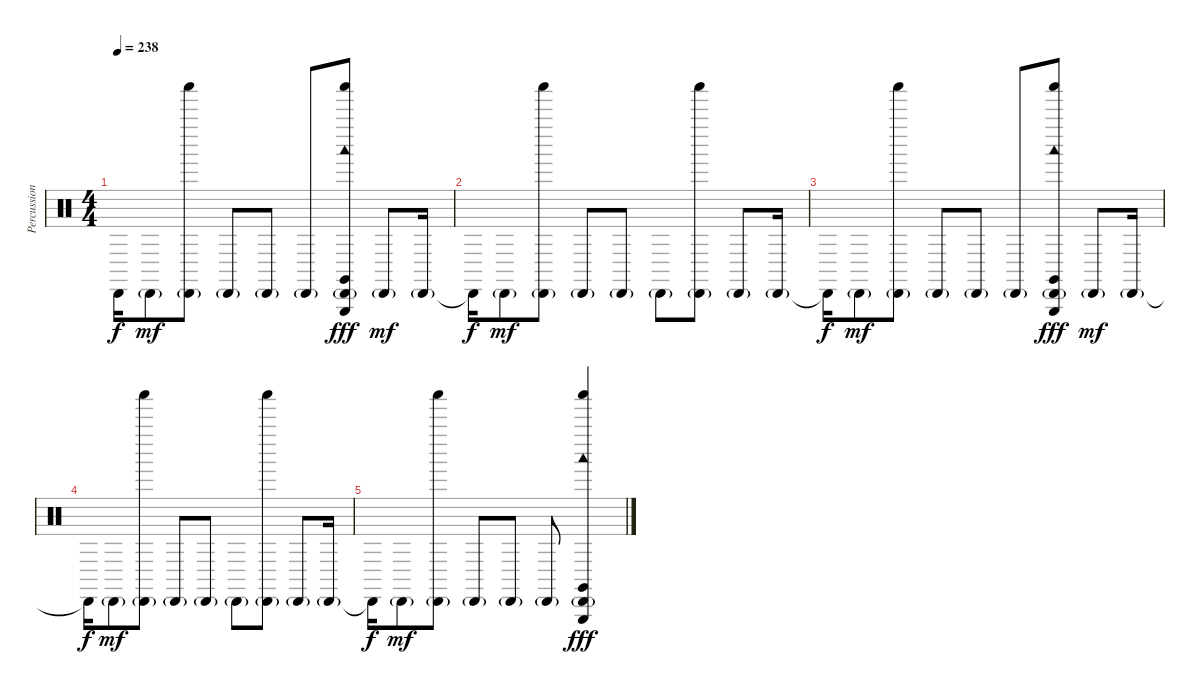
\track ("Percussion" "Percussion") {instrument percussion}
\staff {score}
\articulation defaults
\ts (4 4)
\tempo 238
\clef neutral
\ks c "Cabasa (hit)"{t}.16{dy f} "Cabasa (hit)"{g}.8{dy mf}
("Shaker (hit)" "Cabasa (hit)"{g}).8 "Cabasa (hit)"{g}.8 "Cabasa (hit)"{g}.8 "Cabasa (hit)"{g}.8 ("Shaker (hit)" "Cabasa (hit)"{g} "Claves (hit)" "Woodblock low (hit)" "Triangle (hit)").8{dy fff} "Cabasa (hit)"{g}.8{dy mf} "Cabasa (hit)"{g}.16 |
"Cabasa (hit)"{t}.16{dy f} "Cabasa (hit)"{g}.8{dy mf} ("Shaker (hit)" "Cabasa (hit)"{g}).8 "Cabasa (hit)"{g}.8 "Cabasa (hit)"{g}.8 "Cabasa (hit)"{g}.8 ("Shaker (hit)" "Cabasa (hit)"{g}).8 "Cabasa (hit)"{g}.8 "Cabasa (hit)"{g}.16 |
"Cabasa (hit)"{t}.16{dy f} "Cabasa (hit)"{g}.8{dy mf} ("Shaker (hit)" "Cabasa (hit)"{g}).8 "Cabasa (hit)"{g}.8 "Cabasa (hit)"{g}.8 "Cabasa (hit)"{g}.8 ("Shaker (hit)" "Cabasa (hit)"{g} "Claves (hit)" "Woodblock low (hit)" "Triangle (hit)").8{dy fff} "Cabasa (hit)"{g}.8{dy mf} "Cabasa (hit)"{g}.16 |
"Cabasa (hit)"{t}.16{dy f} "Cabasa (hit)"{g}.8{dy mf} ("Shaker (hit)" "Cabasa (hit)"{g}).8 "Cabasa (hit)"{g}.8 "Cabasa (hit)"{g}.8 "Cabasa (hit)"{g}.8 ("Shaker (hit)" "Cabasa (hit)"{g}).8 "Cabasa (hit)"{g}.8 "Cabasa (hit)"{g}.16 |
"Cabasa (hit)"{t}.16{dy f} "Cabasa (hit)"{g}.8{dy mf} ("Shaker (hit)" "Cabasa (hit)"{g}).8 "Cabasa (hit)"{g}.8 "Cabasa (hit)"{g}.8 "Cabasa (hit)"{g}.8 ("Shaker (hit)" "Cabasa (hit)"{g} "Claves (hit)" "Woodblock low (hit)" "Triangle (hit)").4{dy fff}
